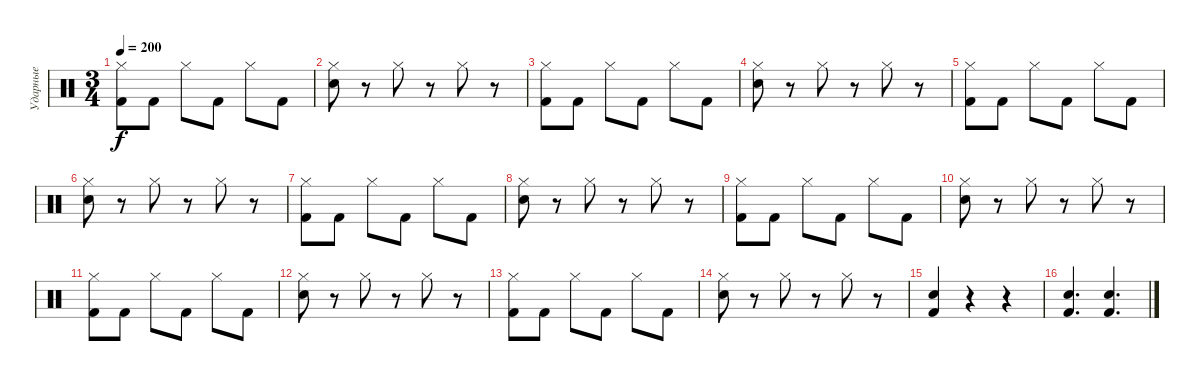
\track ("Ударные" "Ударные") {instrument percussion}
\staff {score}
\articulation defaults
\ts (3 4)
\tempo 200
\clef neutral
\ks c
("Hi-Hat (closed)" "Kick (hit) 2").8{dy f} "Kick (hit) 2".8 "Hi-Hat (closed)".8 "Kick (hit) 2".8 "Hi-Hat (closed)".8 "Kick (hit) 2".8 |
("Electric Snare (hit)" "Hi-Hat (closed)").8 r.8 "Hi-Hat (closed)".8 r.8 "Hi-Hat (closed)".8 r.8 |
("Hi-Hat (closed)" "Kick (hit) 2").8 "Kick (hit) 2".8 "Hi-Hat (closed)".8 "Kick (hit) 2".8 "Hi-Hat (closed)".8 "Kick (hit) 2".8 |
("Electric Snare (hit)" "Hi-Hat (closed)").8 r.8 "Hi-Hat (closed)".8 r.8 "Hi-Hat (closed)".8 r.8 |
("Hi-Hat (closed)" "Kick (hit) 2").8 "Kick (hit) 2".8 "Hi-Hat (closed)".8 "Kick (hit) 2".8 "Hi-Hat (closed)".8 "Kick (hit) 2".8 |
("Electric Snare (hit)" "Hi-Hat (closed)").8 r.8 "Hi-Hat (closed)".8 r.8 "Hi-Hat (closed)".8 r.8 |
("Hi-Hat (closed)" "Kick (hit) 2").8 "Kick (hit) 2".8 "Hi-Hat (closed)".8 "Kick (hit) 2".8 "Hi-Hat (closed)".8 "Kick (hit) 2".8 |
("Electric Snare (hit)" "Hi-Hat (closed)").8 r.8 "Hi-Hat (closed)".8 r.8 "Hi-Hat (closed)".8 r.8 |
("Hi-Hat (closed)" "Kick (hit) 2").8 "Kick (hit) 2".8 "Hi-Hat (closed)".8 "Kick (hit) 2".8 "Hi-Hat (closed)".8 "Kick (hit) 2".8 |
("Electric Snare (hit)" "Hi-Hat (closed)").8 r.8 "Hi-Hat (closed)".8 r.8 "Hi-Hat (closed)".8 r.8 |
("Hi-Hat (closed)" "Kick (hit) 2").8 "Kick (hit) 2".8 "Hi-Hat (closed)".8 "Kick (hit) 2".8 "Hi-Hat (closed)".8 "Kick (hit) 2".8 |
("Electric Snare (hit)" "Hi-Hat (closed)").8 r.8 "Hi-Hat (closed)".8 r.8 "Hi-Hat (closed)".8 r.8 |
("Hi-Hat (closed)" "Kick (hit) 2").8 "Kick (hit) 2".8 "Hi-Hat (closed)".8 "Kick (hit) 2".8 "Hi-Hat (closed)".8 "Kick (hit) 2".8 |
("Electric Snare (hit)" "Hi-Hat (closed)").8 r.8 "Hi-Hat (closed)".8 r.8 "Hi-Hat (closed)".8 r.8 |
("Electric Snare (hit)" "Kick (hit) 2").4 r.4 r.4 |
("Electric Snare (hit)" "Kick (hit) 2").4{d} ("Electric Snare (hit)" "Kick (hit) 2").4{d}
